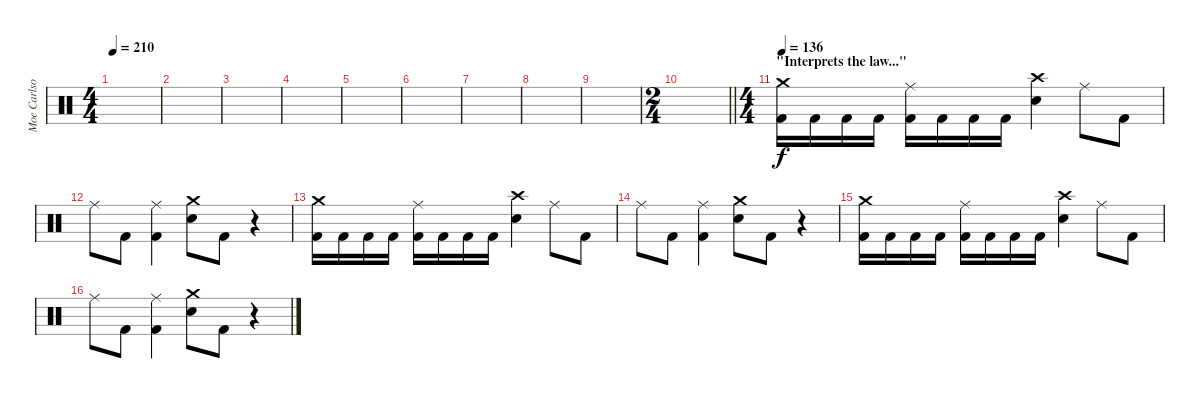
\track ("Moe Carlson" "Moe Carlso") {instrument percussion}
\staff {score}
\articulation defaults
\ts (4 4)
\tempo 210
\clef neutral
\ks c
|
|
|
|
|
|
|
|
|
\ts (2 4)
\barLineRight lightlight
|
\ts (4 4)
\section ("" "\"Interprets the law...\"")
\tempo 136
("Crash medium (hit)" "Kick (hit) 2").16 "Kick (hit) 2".16 "Kick (hit) 2".16 "Kick (hit) 2".16 ("Ride (middle)" "Kick (hit) 2").16 "Kick (hit) 2".16 "Kick (hit) 2".16 "Kick (hit) 2".16 ("Crash high (hit)" "Electric Snare (hit)").4 "Ride (middle)".8 "Kick (hit) 2".8 |
"Ride (middle)".8 "Kick (hit) 2".8 ("Ride (middle)" "Kick (hit) 2").4 ("Crash medium (hit)" "Electric Snare (hit)").8 "Kick (hit) 2".8 r.4 |
("Crash medium (hit)" "Kick (hit) 2").16 "Kick (hit) 2".16 "Kick (hit) 2".16 "Kick (hit) 2".16 ("Ride (middle)" "Kick (hit) 2").16 "Kick (hit) 2".16 "Kick (hit) 2".16 "Kick (hit) 2".16 ("Crash high (hit)" "Electric Snare (hit)").4 "Ride (middle)".8 "Kick (hit) 2".8 |
"Ride (middle)".8 "Kick (hit) 2".8 ("Ride (middle)" "Kick (hit) 2").4 ("Crash medium (hit)" "Electric Snare (hit)").8 "Kick (hit) 2".8 r.4 |
("Crash medium (hit)" "Kick (hit) 2").16 "Kick (hit) 2".16 "Kick (hit) 2".16 "Kick (hit) 2".16 ("Ride (middle)" "Kick (hit) 2").16 "Kick (hit) 2".16 "Kick (hit) 2".16 "Kick (hit) 2".16 ("Crash high (hit)" "Electric Snare (hit)").4 "Ride (middle)".8 "Kick (hit) 2".8 |
"Ride (middle)".8 "Kick (hit) 2".8 ("Ride (middle)" "Kick (hit) 2").4 ("Crash medium (hit)" "Electric Snare (hit)").8 "Kick (hit) 2".8 r.4
